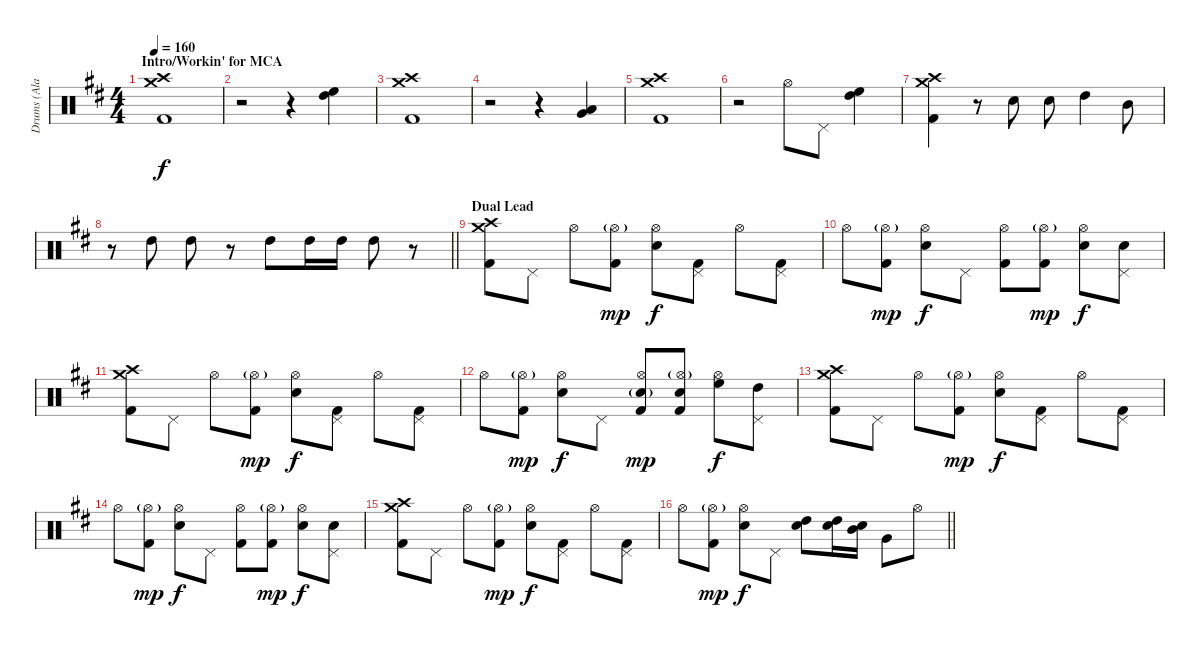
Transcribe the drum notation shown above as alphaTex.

\track ("Drums (Ala Pyle)" "Drums (Ala") {instrument percussion}
\staff {score}
\articulation defaults
\ts (4 4)
\section ("" "Intro/Workin' for MCA")
\tempo 160
\clef neutral
\ks d
("Crash medium (hit)" "Crash high (hit)" "Kick (hit) 2").1{dy f} |
r.2 r.4 ("High Floor Tom (hit)" "High Tom (hit)").4 |
("Crash medium (hit)" "Crash high (hit)" "Kick (hit) 2").1 |
r.2 r.4 ("Low Floor Tom (hit)" "Very Low Tom (hit)").4 |
("Crash medium (hit)" "Crash high (hit)" "Kick (hit) 2").1 |
r.2 "Hi-Hat (open)".8 "Pedal Hi-Hat (hit)".8 ("High Floor Tom (hit)" "High Tom (hit)").4 |
("Crash medium (hit)" "Crash high (hit)" "Kick (hit) 2").4 r.8 "Snare (hit) 2".8 "Snare (hit) 2".8 "High Tom (hit)".4 "Mid Tom (hit)".8 |
\barLineRight lightlight
r.8 "High Tom (hit)".8 "High Tom (hit)".8 r.8 "High Tom (hit)".8 "High Tom (hit)".16 "High Tom (hit)".16 "High Tom (hit)".8 r.8 |
\section ("" "Dual Lead")
("Crash medium (hit)" "Crash high (hit)" "Kick (hit) 2").8 "Pedal Hi-Hat (hit)".8 "Hi-Hat (open)".8 ("Hi-Hat (open)"{g} "Kick (hit) 2").8{dy mp} ("Snare (hit) 2" "Hi-Hat (open)").8{dy f} ("Pedal Hi-Hat (hit)" "Kick (hit) 2").8 "Hi-Hat (open)".8 ("Pedal Hi-Hat (hit)" "Kick (hit) 2").8 |
"Hi-Hat (open)".8 ("Hi-Hat (open)"{g} "Kick (hit) 2").8{dy mp} ("Snare (hit) 2" "Hi-Hat (open)").8{dy f} "Pedal Hi-Hat (hit)".8 ("Hi-Hat (open)" "Kick (hit) 2").8 ("Hi-Hat (open)"{g} "Kick (hit) 2").8{dy mp} ("Snare (hit) 2" "Hi-Hat (open)").8{dy f} ("Snare (hit) 2" "Pedal Hi-Hat (hit)").8 |
("Crash medium (hit)" "Crash high (hit)" "Kick (hit) 2").8 "Pedal Hi-Hat (hit)".8 "Hi-Hat (open)".8 ("Hi-Hat (open)"{g} "Kick (hit) 2").8{dy mp} ("Snare (hit) 2" "Hi-Hat (open)").8{dy f} ("Pedal Hi-Hat (hit)" "Kick (hit) 2").8 "Hi-Hat (open)".8 ("Pedal Hi-Hat (hit)" "Kick (hit) 2").8 |
"Hi-Hat (open)".8 ("Hi-Hat (open)"{g} "Kick (hit) 2").8{dy mp} ("Snare (hit) 2" "Hi-Hat (open)").8{dy f} "Pedal Hi-Hat (hit)".8 ("Snare (hit) 2"{g} "Hi-Hat (open)" "Kick (hit) 2").8{dy mp} ("Snare (hit) 2" "Hi-Hat (open)"{g} "Kick (hit) 2").8 ("High Floor Tom (hit)" "Hi-Hat (open)").8{dy f} ("High Tom (hit)" "Pedal Hi-Hat (hit)").8 |
("Crash medium (hit)" "Crash high (hit)" "Kick (hit) 2").8 "Pedal Hi-Hat (hit)".8 "Hi-Hat (open)".8 ("Hi-Hat (open)"{g} "Kick (hit) 2").8{dy mp} ("Snare (hit) 2" "Hi-Hat (open)").8{dy f} ("Pedal Hi-Hat (hit)" "Kick (hit) 2").8 "Hi-Hat (open)".8 ("Pedal Hi-Hat (hit)" "Kick (hit) 2").8 |
"Hi-Hat (open)".8 ("Hi-Hat (open)"{g} "Kick (hit) 2").8{dy mp} ("Snare (hit) 2" "Hi-Hat (open)").8{dy f} "Pedal Hi-Hat (hit)".8 ("Hi-Hat (open)" "Kick (hit) 2").8 ("Hi-Hat (open)"{g} "Kick (hit) 2").8{dy mp} ("Snare (hit) 2" "Hi-Hat (open)").8{dy f} ("Snare (hit) 2" "Pedal Hi-Hat (hit)").8 |
("Crash medium (hit)" "Crash high (hit)" "Kick (hit) 2").8 "Pedal Hi-Hat (hit)".8 "Hi-Hat (open)".8 ("Hi-Hat (open)"{g} "Kick (hit) 2").8{dy mp} ("Snare (hit) 2" "Hi-Hat (open)").8{dy f} ("Pedal Hi-Hat (hit)" "Kick (hit) 2").8 "Hi-Hat (open)".8 ("Pedal Hi-Hat (hit)" "Kick (hit) 2").8 |
\barLineRight lightlight "Hi-Hat (open)".8
("Hi-Hat (open)"{g} "Kick (hit) 2").8{dy mp} ("Snare (hit) 2" "Hi-Hat (open)").8{dy f} "Pedal Hi-Hat (hit)".8 ("Snare (hit) 2" "High Tom (hit)").8 ("Snare (hit) 2" "High Tom (hit)").16 ("Snare (hit) 2" "Mid Tom (hit)").16 "Very Low Tom (hit)".8 "Hi-Hat (open)".8
